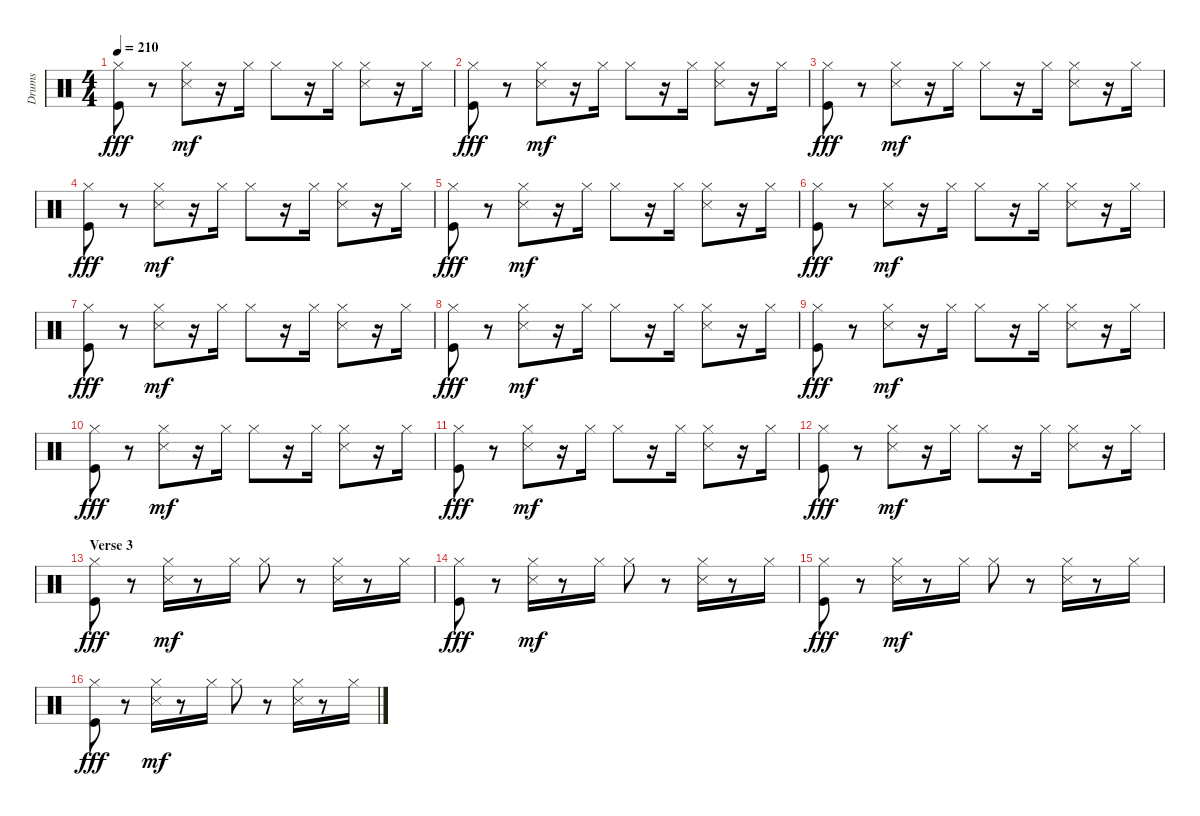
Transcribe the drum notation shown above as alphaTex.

\track ("Drums" "Drums") {instrument percussion}
\staff {score}
\articulation defaults
\ts (4 4)
\tempo 210
\clef neutral
\ks c
("Hi-Hat (closed)" "Kick (hit)").8{dy fff} r.8 ("Hi-Hat (closed)" "Snare (side stick) 3").8{dy mf} r.16 "Hi-Hat (closed)".16 "Hi-Hat (closed)".8 r.16 "Hi-Hat (closed)".16 ("Hi-Hat (closed)" "Snare (side stick) 3").8 r.16 "Hi-Hat (closed)".16 |
("Hi-Hat (closed)" "Kick (hit)").8{dy fff} r.8 ("Hi-Hat (closed)" "Snare (side stick) 3").8{dy mf} r.16 "Hi-Hat (closed)".16 "Hi-Hat (closed)".8 r.16 "Hi-Hat (closed)".16 ("Hi-Hat (closed)" "Snare (side stick) 3").8 r.16 "Hi-Hat (closed)".16 |
("Hi-Hat (closed)" "Kick (hit)").8{dy fff} r.8 ("Hi-Hat (closed)" "Snare (side stick) 3").8{dy mf} r.16 "Hi-Hat (closed)".16 "Hi-Hat (closed)".8 r.16 "Hi-Hat (closed)".16 ("Hi-Hat (closed)" "Snare (side stick) 3").8 r.16 "Hi-Hat (closed)".16 |
("Hi-Hat (closed)" "Kick (hit)").8{dy fff} r.8 ("Hi-Hat (closed)" "Snare (side stick) 3").8{dy mf} r.16 "Hi-Hat (closed)".16 "Hi-Hat (closed)".8 r.16 "Hi-Hat (closed)".16 ("Hi-Hat (closed)" "Snare (side stick) 3").8 r.16 "Hi-Hat (closed)".16 |
("Hi-Hat (closed)" "Kick (hit)").8{dy fff} r.8 ("Hi-Hat (closed)" "Snare (side stick) 3").8{dy mf} r.16 "Hi-Hat (closed)".16 "Hi-Hat (closed)".8 r.16 "Hi-Hat (closed)".16 ("Hi-Hat (closed)" "Snare (side stick) 3").8 r.16 "Hi-Hat (closed)".16 |
("Hi-Hat (closed)" "Kick (hit)").8{dy fff} r.8 ("Hi-Hat (closed)" "Snare (side stick) 3").8{dy mf} r.16 "Hi-Hat (closed)".16 "Hi-Hat (closed)".8 r.16 "Hi-Hat (closed)".16 ("Hi-Hat (closed)" "Snare (side stick) 3").8 r.16 "Hi-Hat (closed)".16 |
("Hi-Hat (closed)" "Kick (hit)").8{dy fff} r.8 ("Hi-Hat (closed)" "Snare (side stick) 3").8{dy mf} r.16 "Hi-Hat (closed)".16 "Hi-Hat (closed)".8 r.16 "Hi-Hat (closed)".16 ("Hi-Hat (closed)" "Snare (side stick) 3").8 r.16 "Hi-Hat (closed)".16 |
("Hi-Hat (closed)" "Kick (hit)").8{dy fff} r.8 ("Hi-Hat (closed)" "Snare (side stick) 3").8{dy mf} r.16 "Hi-Hat (closed)".16 "Hi-Hat (closed)".8 r.16 "Hi-Hat (closed)".16 ("Hi-Hat (closed)" "Snare (side stick) 3").8 r.16 "Hi-Hat (closed)".16 |
("Hi-Hat (closed)" "Kick (hit)").8{dy fff} r.8 ("Hi-Hat (closed)" "Snare (side stick) 3").8{dy mf} r.16 "Hi-Hat (closed)".16 "Hi-Hat (closed)".8 r.16 "Hi-Hat (closed)".16 ("Hi-Hat (closed)" "Snare (side stick) 3").8 r.16 "Hi-Hat (closed)".16 |
("Hi-Hat (closed)" "Kick (hit)").8{dy fff} r.8 ("Hi-Hat (closed)" "Snare (side stick) 3").8{dy mf} r.16 "Hi-Hat (closed)".16 "Hi-Hat (closed)".8 r.16 "Hi-Hat (closed)".16 ("Hi-Hat (closed)" "Snare (side stick) 3").8 r.16 "Hi-Hat (closed)".16 |
("Hi-Hat (closed)" "Kick (hit)").8{dy fff} r.8 ("Hi-Hat (closed)" "Snare (side stick) 3").8{dy mf} r.16 "Hi-Hat (closed)".16 "Hi-Hat (closed)".8 r.16 "Hi-Hat (closed)".16 ("Hi-Hat (closed)" "Snare (side stick) 3").8 r.16 "Hi-Hat (closed)".16 |
("Hi-Hat (closed)" "Kick (hit)").8{dy fff} r.8 ("Hi-Hat (closed)" "Snare (side stick) 3").8{dy mf} r.16 "Hi-Hat (closed)".16 "Hi-Hat (closed)".8 r.16 "Hi-Hat (closed)".16 ("Hi-Hat (closed)" "Snare (side stick) 3").8 r.16 "Hi-Hat (closed)".16 |
\section ("" "Verse 3")
("Hi-Hat (closed)" "Kick (hit)").8{dy fff} r.8 ("Hi-Hat (closed)" "Snare (side stick) 3").16{dy mf} r.8 "Hi-Hat (closed)".16 "Hi-Hat (closed)".8 r.8 ("Hi-Hat (closed)" "Snare (side stick) 3").16 r.8 "Hi-Hat (closed)".16 |
("Hi-Hat (closed)" "Kick (hit)").8{dy fff} r.8 ("Hi-Hat (closed)" "Snare (side stick) 3").16{dy mf} r.8 "Hi-Hat (closed)".16 "Hi-Hat (closed)".8 r.8 ("Hi-Hat (closed)" "Snare (side stick) 3").16 r.8 "Hi-Hat (closed)".16 |
("Hi-Hat (closed)" "Kick (hit)").8{dy fff} r.8 ("Hi-Hat (closed)" "Snare (side stick) 3").16{dy mf} r.8 "Hi-Hat (closed)".16 "Hi-Hat (closed)".8 r.8 ("Hi-Hat (closed)" "Snare (side stick) 3").16 r.8 "Hi-Hat (closed)".16 |
("Hi-Hat (closed)" "Kick (hit)").8{dy fff} r.8 ("Hi-Hat (closed)" "Snare (side stick) 3").16{dy mf} r.8 "Hi-Hat (closed)".16 "Hi-Hat (closed)".8 r.8 ("Hi-Hat (closed)" "Snare (side stick) 3").16 r.8 "Hi-Hat (closed)".16
